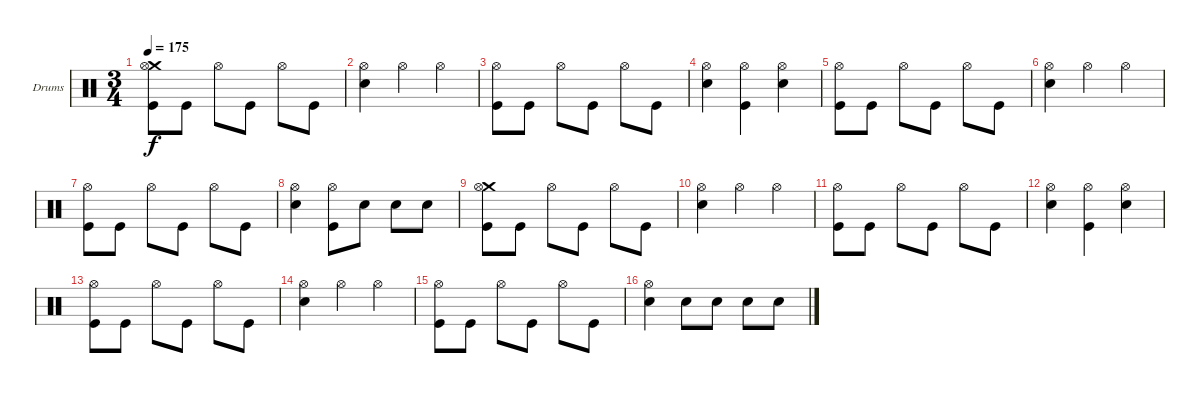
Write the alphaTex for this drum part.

\bracketExtendMode groupsimilarinstruments
\firstSystemTrackNameOrientation horizontal
\otherSystemsTrackNameOrientation horizontal
\track ("Drums" "Drums") {instrument percussion}
\staff {score}
\articulation defaults
\ts (3 4)
\tempo 175
\clef neutral
\ks c
("Crash medium (hit)" "Hi-Hat (open)" "Kick (hit)").8{dy f} "Kick (hit)".8 "Hi-Hat (open)".8 "Kick (hit)".8 "Hi-Hat (open)".8 "Kick (hit)".8 |
("Hi-Hat (open)" "Snare (hit) 2").4 "Hi-Hat (open)".4 "Hi-Hat (open)".4 |
("Hi-Hat (open)" "Kick (hit)").8 "Kick (hit)".8 "Hi-Hat (open)".8 "Kick (hit)".8 "Hi-Hat (open)".8 "Kick (hit)".8 |
("Hi-Hat (open)" "Snare (hit) 2").4 ("Hi-Hat (open)" "Kick (hit)").4 ("Hi-Hat (open)" "Snare (hit) 2").4 |
("Hi-Hat (open)" "Kick (hit)").8 "Kick (hit)".8 "Hi-Hat (open)".8 "Kick (hit)".8 "Hi-Hat (open)".8 "Kick (hit)".8 |
("Hi-Hat (open)" "Snare (hit) 2").4 "Hi-Hat (open)".4 "Hi-Hat (open)".4 |
("Hi-Hat (open)" "Kick (hit)").8 "Kick (hit)".8 "Hi-Hat (open)".8 "Kick (hit)".8 "Hi-Hat (open)".8 "Kick (hit)".8 |
("Hi-Hat (open)" "Snare (hit) 2").4 ("Hi-Hat (open)" "Kick (hit)").8 "Snare (hit) 2".8 "Snare (hit) 2".8 "Snare (hit) 2".8 |
("Crash medium (hit)" "Hi-Hat (open)" "Kick (hit)").8 "Kick (hit)".8 "Hi-Hat (open)".8 "Kick (hit)".8 "Hi-Hat (open)".8 "Kick (hit)".8 |
("Hi-Hat (open)" "Snare (hit) 2").4 "Hi-Hat (open)".4 "Hi-Hat (open)".4 |
("Hi-Hat (open)" "Kick (hit)").8 "Kick (hit)".8 "Hi-Hat (open)".8 "Kick (hit)".8 "Hi-Hat (open)".8 "Kick (hit)".8 |
("Hi-Hat (open)" "Snare (hit) 2").4 ("Hi-Hat (open)" "Kick (hit)").4 ("Hi-Hat (open)" "Snare (hit) 2").4 |
("Hi-Hat (open)" "Kick (hit)").8 "Kick (hit)".8 "Hi-Hat (open)".8 "Kick (hit)".8 "Hi-Hat (open)".8 "Kick (hit)".8 |
("Hi-Hat (open)" "Snare (hit) 2").4 "Hi-Hat (open)".4 "Hi-Hat (open)".4 |
("Hi-Hat (open)" "Kick (hit)").8 "Kick (hit)".8 "Hi-Hat (open)".8 "Kick (hit)".8 "Hi-Hat (open)".8 "Kick (hit)".8 |
("Hi-Hat (open)" "Snare (hit) 2").4 "Snare (hit) 2".8 "Snare (hit) 2".8 "Snare (hit) 2".8 "Snare (hit) 2".8
